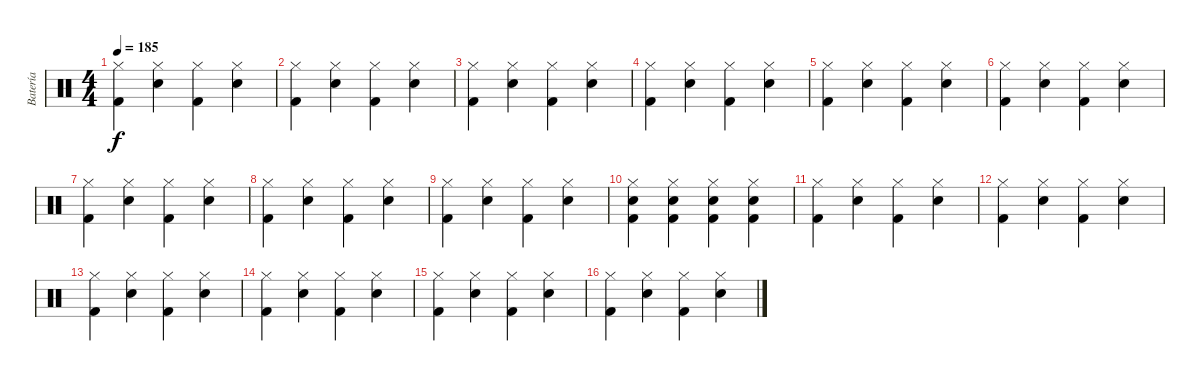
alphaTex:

\track ("Batería" "Batería") {instrument percussion}
\staff {score}
\articulation defaults
\ts (4 4)
\tempo 185
\clef neutral
\ks c
("Hi-Hat (closed)" "Kick (hit) 2").4{dy f} ("Hi-Hat (closed)" "Snare (hit) 2").4 ("Hi-Hat (closed)" "Kick (hit) 2").4 ("Hi-Hat (closed)" "Snare (hit) 2").4 |
("Hi-Hat (closed)" "Kick (hit) 2").4 ("Hi-Hat (closed)" "Snare (hit) 2").4 ("Hi-Hat (closed)" "Kick (hit) 2").4 ("Hi-Hat (closed)" "Snare (hit) 2").4 |
("Hi-Hat (closed)" "Kick (hit) 2").4 ("Hi-Hat (closed)" "Snare (hit) 2").4 ("Hi-Hat (closed)" "Kick (hit) 2").4 ("Hi-Hat (closed)" "Snare (hit) 2").4 |
("Hi-Hat (closed)" "Kick (hit) 2").4 ("Hi-Hat (closed)" "Snare (hit) 2").4 ("Hi-Hat (closed)" "Kick (hit) 2").4 ("Hi-Hat (closed)" "Snare (hit) 2").4 |
("Hi-Hat (closed)" "Kick (hit) 2").4 ("Hi-Hat (closed)" "Snare (hit) 2").4 ("Hi-Hat (closed)" "Kick (hit) 2").4 ("Hi-Hat (closed)" "Snare (hit) 2").4 |
("Hi-Hat (closed)" "Kick (hit) 2").4 ("Hi-Hat (closed)" "Snare (hit) 2").4 ("Hi-Hat (closed)" "Kick (hit) 2").4 ("Hi-Hat (closed)" "Snare (hit) 2").4 |
("Hi-Hat (closed)" "Kick (hit) 2").4 ("Hi-Hat (closed)" "Snare (hit) 2").4 ("Hi-Hat (closed)" "Kick (hit) 2").4 ("Hi-Hat (closed)" "Snare (hit) 2").4 |
("Hi-Hat (closed)" "Kick (hit) 2").4 ("Hi-Hat (closed)" "Snare (hit) 2").4 ("Hi-Hat (closed)" "Kick (hit) 2").4 ("Hi-Hat (closed)" "Snare (hit) 2").4 |
("Hi-Hat (closed)" "Kick (hit) 2").4 ("Hi-Hat (closed)" "Snare (hit) 2").4 ("Hi-Hat (closed)" "Kick (hit) 2").4 ("Hi-Hat (closed)" "Snare (hit) 2").4 |
("Kick (hit) 2" "Hi-Hat (closed)" "Snare (hit) 2").4 ("Kick (hit) 2" "Hi-Hat (closed)" "Snare (hit) 2").4 ("Kick (hit) 2" "Hi-Hat (closed)" "Snare (hit) 2").4 ("Kick (hit) 2" "Hi-Hat (closed)" "Snare (hit) 2").4 |
("Hi-Hat (closed)" "Kick (hit) 2").4 ("Hi-Hat (closed)" "Snare (hit) 2").4 ("Hi-Hat (closed)" "Kick (hit) 2").4 ("Hi-Hat (closed)" "Snare (hit) 2").4 |
("Hi-Hat (closed)" "Kick (hit) 2").4 ("Hi-Hat (closed)" "Snare (hit) 2").4 ("Hi-Hat (closed)" "Kick (hit) 2").4 ("Hi-Hat (closed)" "Snare (hit) 2").4 |
("Hi-Hat (closed)" "Kick (hit) 2").4 ("Hi-Hat (closed)" "Snare (hit) 2").4 ("Hi-Hat (closed)" "Kick (hit) 2").4 ("Hi-Hat (closed)" "Snare (hit) 2").4 |
("Hi-Hat (closed)" "Kick (hit) 2").4 ("Hi-Hat (closed)" "Snare (hit) 2").4 ("Hi-Hat (closed)" "Kick (hit) 2").4 ("Hi-Hat (closed)" "Snare (hit) 2").4 |
("Hi-Hat (closed)" "Kick (hit) 2").4 ("Hi-Hat (closed)" "Snare (hit) 2").4 ("Hi-Hat (closed)" "Kick (hit) 2").4 ("Hi-Hat (closed)" "Snare (hit) 2").4 |
("Hi-Hat (closed)" "Kick (hit) 2").4 ("Hi-Hat (closed)" "Snare (hit) 2").4 ("Hi-Hat (closed)" "Kick (hit) 2").4 ("Hi-Hat (closed)" "Snare (hit) 2").4
